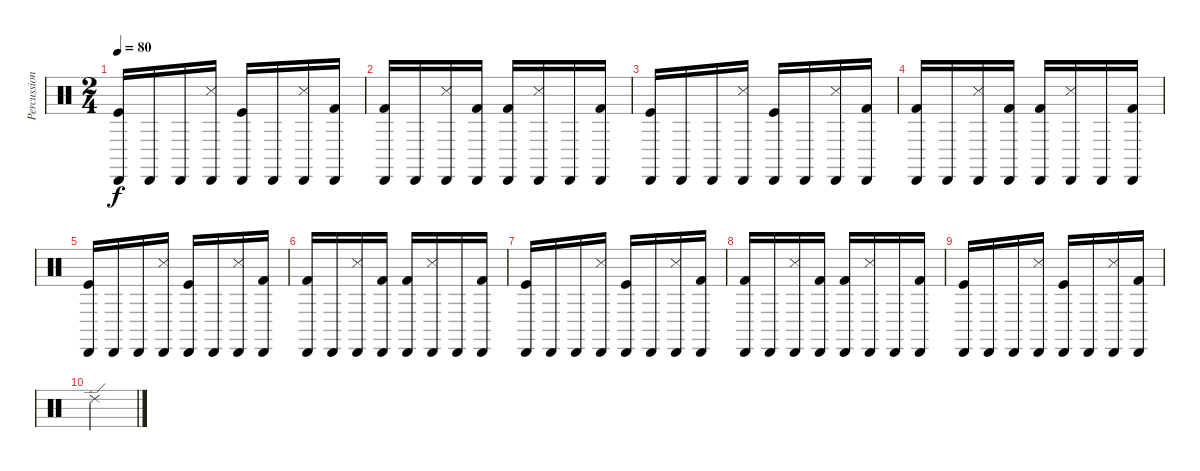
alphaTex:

\track ("Percussions" "Percussion") {instrument percussion}
\staff {score}
\articulation defaults
\ts (2 4)
\tempo 80
\clef neutral
\ks c
("Cabasa (hit)" "Kick (hit)").16{dy f} "Cabasa (hit)".16 "Cabasa (hit)".16 ("Cabasa (hit)" "Snare (side stick) 3").16 ("Cabasa (hit)" "Kick (hit)").16 "Cabasa (hit)".16 ("Cabasa (hit)" "Snare (side stick) 3").16 ("Cabasa (hit)" "Kick (hit) 2").16 |
("Cabasa (hit)" "Kick (hit) 2").16 "Cabasa (hit)".16 ("Cabasa (hit)" "Snare (side stick) 3").16 ("Cabasa (hit)" "Kick (hit) 2").16 ("Cabasa (hit)" "Kick (hit) 2").16 ("Cabasa (hit)" "Snare (side stick) 3").16 "Cabasa (hit)".16 ("Cabasa (hit)" "Kick (hit) 2").16 |
("Cabasa (hit)" "Kick (hit)").16 "Cabasa (hit)".16 "Cabasa (hit)".16 ("Cabasa (hit)" "Snare (side stick) 3").16 ("Cabasa (hit)" "Kick (hit)").16 "Cabasa (hit)".16 ("Cabasa (hit)" "Snare (side stick) 3").16 ("Cabasa (hit)" "Kick (hit) 2").16 |
("Cabasa (hit)" "Kick (hit) 2").16 "Cabasa (hit)".16 ("Cabasa (hit)" "Snare (side stick) 3").16 ("Cabasa (hit)" "Kick (hit) 2").16 ("Cabasa (hit)" "Kick (hit) 2").16 ("Cabasa (hit)" "Snare (side stick) 3").16 "Cabasa (hit)".16 ("Cabasa (hit)" "Kick (hit) 2").16 |
("Cabasa (hit)" "Kick (hit)").16 "Cabasa (hit)".16 "Cabasa (hit)".16 ("Cabasa (hit)" "Snare (side stick) 3").16 ("Cabasa (hit)" "Kick (hit)").16 "Cabasa (hit)".16 ("Cabasa (hit)" "Snare (side stick) 3").16 ("Cabasa (hit)" "Kick (hit) 2").16 |
("Cabasa (hit)" "Kick (hit) 2").16 "Cabasa (hit)".16 ("Cabasa (hit)" "Snare (side stick) 3").16 ("Cabasa (hit)" "Kick (hit) 2").16 ("Cabasa (hit)" "Kick (hit) 2").16 ("Cabasa (hit)" "Snare (side stick) 3").16 "Cabasa (hit)".16 ("Cabasa (hit)" "Kick (hit) 2").16 |
("Cabasa (hit)" "Kick (hit)").16 "Cabasa (hit)".16 "Cabasa (hit)".16 ("Cabasa (hit)" "Snare (side stick) 3").16 ("Cabasa (hit)" "Kick (hit)").16 "Cabasa (hit)".16 ("Cabasa (hit)" "Snare (side stick) 3").16 ("Cabasa (hit)" "Kick (hit) 2").16 |
("Cabasa (hit)" "Kick (hit) 2").16 "Cabasa (hit)".16 ("Cabasa (hit)" "Snare (side stick) 3").16 ("Cabasa (hit)" "Kick (hit) 2").16 ("Cabasa (hit)" "Kick (hit) 2").16 ("Cabasa (hit)" "Snare (side stick) 3").16 "Cabasa (hit)".16 ("Cabasa (hit)" "Kick (hit) 2").16 |
("Cabasa (hit)" "Kick (hit)").16 "Cabasa (hit)".16 "Cabasa (hit)".16 ("Cabasa (hit)" "Snare (side stick) 3").16 ("Cabasa (hit)" "Kick (hit)").16 "Cabasa (hit)".16 ("Cabasa (hit)" "Snare (side stick) 3").16 ("Cabasa (hit)" "Kick (hit) 2").16 |
"Ride (edge) 2".2
